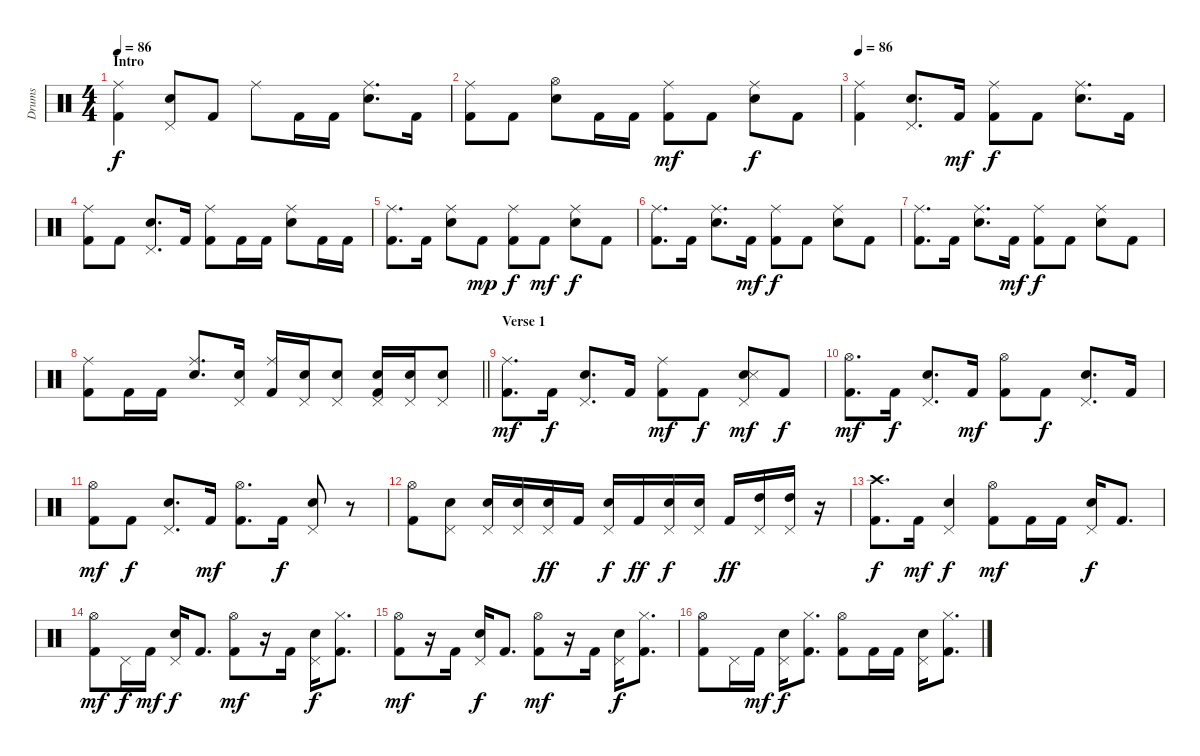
\track ("Drums" "Drums") {instrument percussion}
\staff {score}
\articulation defaults
\ts (4 4)
\section ("" "Intro")
\tempo 86
\tempo 84
\tempo 86
\clef neutral
\ks c
("Ride (middle)" "Kick (hit) 2").4{dy f} ("Pedal Hi-Hat (hit)" "Snare (hit) 2").8 "Kick (hit) 2".8 "Ride (middle)".8 "Kick (hit) 2".16 "Kick (hit) 2".16 ("Ride (middle)" "Snare (hit) 2").8{d} "Kick (hit) 2".16 |
("Ride (middle)" "Kick (hit) 2").8 "Kick (hit) 2".8 ("Hi-Hat (open)" "Snare (hit) 2").8 "Kick (hit) 2".16 "Kick (hit) 2".16 ("Ride (middle)" "Kick (hit) 2").8{dy mf} "Kick (hit) 2".8 ("Ride (middle)" "Snare (hit) 2").8{dy f} "Kick (hit) 2".8 |
\tempo 86
("Ride (middle)" "Kick (hit) 2").4 ("Pedal Hi-Hat (hit)" "Snare (hit) 2").8{d} "Kick (hit) 2".16{dy mf} ("Ride (middle)" "Kick (hit) 2").8{dy f} "Kick (hit) 2".8 ("Ride (middle)" "Snare (hit) 2").8{d} "Kick (hit) 2".16 |
("Ride (middle)" "Kick (hit) 2").8 "Kick (hit) 2".8 ("Pedal Hi-Hat (hit)" "Snare (hit) 2").8{d} "Kick (hit) 2".16 ("Ride (middle)" "Kick (hit) 2").8 "Kick (hit) 2".16 "Kick (hit) 2".16 ("Ride (middle)" "Snare (hit) 2").8 "Kick (hit) 2".16 "Kick (hit) 2".16 |
("Ride (middle)" "Kick (hit) 2").8{d} "Kick (hit) 2".16 ("Ride (middle)" "Snare (hit) 2").8 "Kick (hit) 2".8{dy mp} ("Ride (middle)" "Kick (hit) 2").8{dy f} "Kick (hit) 2".8{dy mf} ("Ride (middle)" "Snare (hit) 2").8{dy f} "Kick (hit) 2".8 |
("Ride (middle)" "Kick (hit) 2").8{d} "Kick (hit) 2".16 ("Ride (middle)" "Snare (hit) 2").8{d} "Kick (hit) 2".16{dy mf} ("Ride (middle)" "Kick (hit) 2").8{dy f} "Kick (hit) 2".8 ("Ride (middle)" "Snare (hit) 2").8 "Kick (hit) 2".8 |
("Ride (middle)" "Kick (hit) 2").8{d} "Kick (hit) 2".16 ("Ride (middle)" "Snare (hit) 2").8{d} "Kick (hit) 2".16{dy mf} ("Ride (middle)" "Kick (hit) 2").8{dy f} "Kick (hit) 2".8 ("Ride (middle)" "Snare (hit) 2").8 "Kick (hit) 2".8 |
\barLineRight lightlight
("Ride (middle)" "Kick (hit) 2").8 "Kick (hit) 2".16 "Kick (hit) 2".16 ("Ride (middle)" "Snare (hit) 2").8{d} ("Pedal Hi-Hat (hit)" "Snare (hit) 2").16 ("Ride (middle)" "Kick (hit) 2").16 ("Pedal Hi-Hat (hit)" "Snare (hit) 2").16 ("Pedal Hi-Hat (hit)" "Snare (hit) 2").8 ("Pedal Hi-Hat (hit)" "Snare (hit) 2" "Kick (hit) 2").16 ("Pedal Hi-Hat (hit)" "Snare (hit) 2").16 ("Pedal Hi-Hat (hit)" "Snare (hit) 2").8 |
\section ("" "Verse 1")
("Ride (middle)" "Kick (hit) 2").8{d dy mf} "Kick (hit) 2".16{dy f} ("Pedal Hi-Hat (hit)" "Snare (hit) 2").8{d} "Kick (hit) 2".16 ("Ride (middle)" "Kick (hit) 2").8{dy mf} "Kick (hit) 2".8{dy f} ("Pedal Hi-Hat (hit)" "Snare (hit) 2" "Snare (side stick) 3").8{dy mf} "Kick (hit) 2".8{dy f} |
("Hi-Hat (open)" "Kick (hit) 2").8{d dy mf} "Kick (hit) 2".16{dy f} ("Pedal Hi-Hat (hit)" "Snare (hit) 2").8{d} "Kick (hit) 2".16{dy mf} ("Hi-Hat (open)" "Kick (hit) 2").8 "Kick (hit) 2".8{dy f} ("Pedal Hi-Hat (hit)" "Snare (hit) 2").8{d} "Kick (hit) 2".16 |
("Hi-Hat (open)" "Kick (hit) 2").8{dy mf} "Kick (hit) 2".8{dy f} ("Pedal Hi-Hat (hit)" "Snare (hit) 2").8{d} "Kick (hit) 2".16{dy mf} ("Hi-Hat (open)" "Kick (hit) 2").8{d} "Kick (hit) 2".16{dy f} ("Pedal Hi-Hat (hit)" "Snare (hit) 2").8 r.8 |
("Hi-Hat (open)" "Kick (hit) 2").8 ("Pedal Hi-Hat (hit)" "Snare (hit) 2").8 ("Pedal Hi-Hat (hit)" "Snare (hit) 2").16 ("Pedal Hi-Hat (hit)" "Snare (hit) 2").16 ("Pedal Hi-Hat (hit)" "Snare (hit) 2").16{dy ff} "Kick (hit) 2".16 ("Pedal Hi-Hat (hit)" "Snare (hit) 2").16{dy f} "Kick (hit) 2".16{dy ff} ("Pedal Hi-Hat (hit)" "Snare (hit) 2").16{dy f} ("Pedal Hi-Hat (hit)" "Snare (hit) 2").16 "Kick (hit) 2".16{dy ff} ("Pedal Hi-Hat (hit)" "High Tom (hit)").16 ("Pedal Hi-Hat (hit)" "High Tom (hit)").16 r.16 |
("Crash high (hit)" "Kick (hit) 2").8{d dy f} "Kick (hit) 2".16{dy mf} ("Pedal Hi-Hat (hit)" "Snare (hit) 2").4{dy f} ("Hi-Hat (open)" "Kick (hit) 2").8{dy mf} "Kick (hit) 2".16 "Kick (hit) 2".16 ("Pedal Hi-Hat (hit)" "Snare (hit) 2").16{dy f} "Kick (hit) 2".8{d} |
("Hi-Hat (open)" "Kick (hit) 2").8{dy mf} "Pedal Hi-Hat (hit)".16{dy f} "Kick (hit) 2".16{dy mf} ("Pedal Hi-Hat (hit)" "Snare (hit) 2").16{dy f} "Kick (hit) 2".8{d} ("Hi-Hat (open)" "Kick (hit) 2").8{dy mf} r.16 "Kick (hit) 2".16 ("Pedal Hi-Hat (hit)" "Snare (hit) 2").16{dy f} ("Hi-Hat (closed)" "Kick (hit) 2").8{d} |
("Hi-Hat (open)" "Kick (hit) 2").8{dy mf} r.16 "Kick (hit) 2".16 ("Pedal Hi-Hat (hit)" "Snare (hit) 2").16{dy f} "Kick (hit) 2".8{d} ("Hi-Hat (open)" "Kick (hit) 2").8{dy mf} r.16 "Kick (hit) 2".16 ("Pedal Hi-Hat (hit)" "Snare (hit) 2").16{dy f} ("Hi-Hat (closed)" "Kick (hit) 2").8{d} |
("Hi-Hat (open)" "Kick (hit) 2").8 "Pedal Hi-Hat (hit)".16 "Kick (hit) 2".16{dy mf} ("Pedal Hi-Hat (hit)" "Snare (hit) 2").16{dy f} ("Hi-Hat (closed)" "Kick (hit) 2").8{d} ("Hi-Hat (open)" "Kick (hit) 2").8 "Kick (hit) 2".16 "Kick (hit) 2".16 ("Pedal Hi-Hat (hit)" "Snare (hit) 2").16 ("Hi-Hat (closed)" "Kick (hit) 2").8{d}
